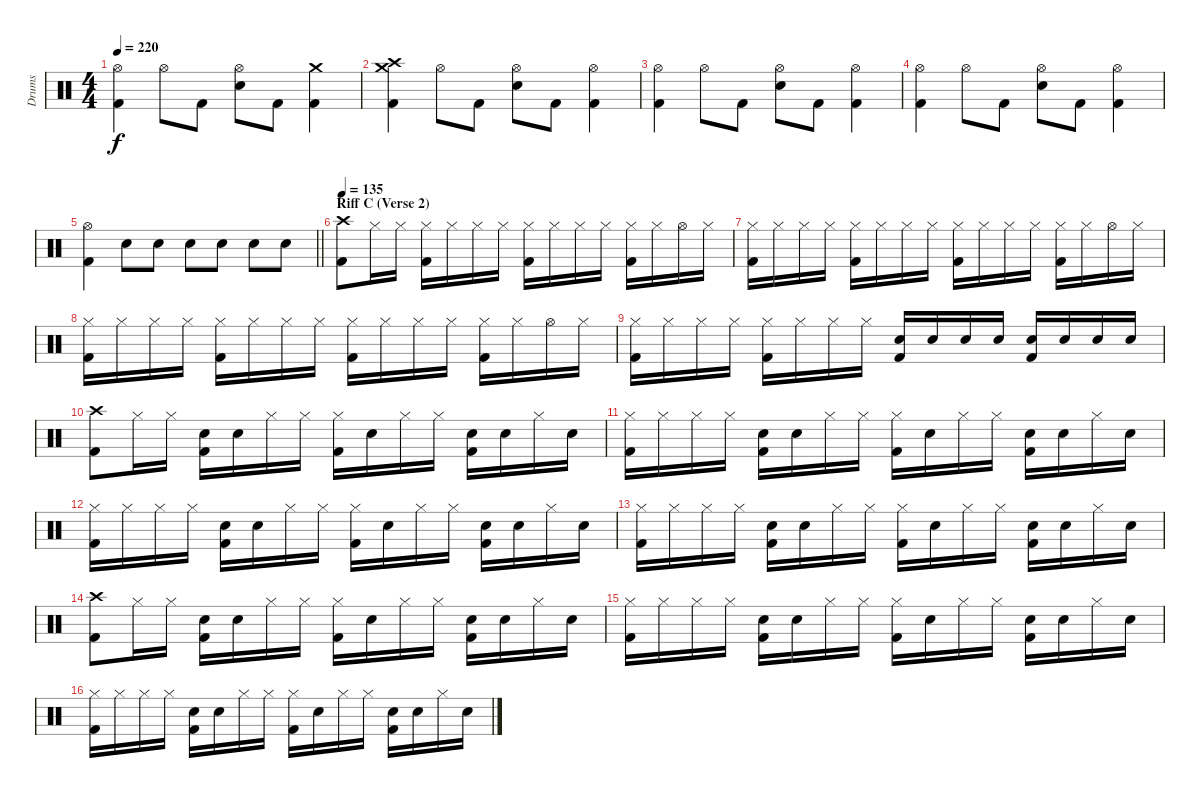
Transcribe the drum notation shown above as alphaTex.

\track ("Drums" "Drums") {instrument percussion}
\staff {score}
\articulation defaults
\ts (4 4)
\tempo 220
\clef neutral
\ks c
("Hi-Hat (open)" "Kick (hit) 2").4{dy f} "Hi-Hat (open)".8 "Kick (hit) 2".8 ("Hi-Hat (open)" "Snare (hit) 2").8 "Kick (hit) 2".8 ("Crash medium (hit)" "Kick (hit) 2").4 |
("Crash high (hit)" "Crash medium (hit)" "Kick (hit) 2").4 "Hi-Hat (open)".8 "Kick (hit) 2".8 ("Hi-Hat (open)" "Snare (hit) 2").8 "Kick (hit) 2".8 ("Hi-Hat (open)" "Kick (hit) 2").4 |
("Hi-Hat (open)" "Kick (hit) 2").4 "Hi-Hat (open)".8 "Kick (hit) 2".8 ("Hi-Hat (open)" "Snare (hit) 2").8 "Kick (hit) 2".8 ("Hi-Hat (open)" "Kick (hit) 2").4 |
("Hi-Hat (open)" "Kick (hit) 2").4 "Hi-Hat (open)".8 "Kick (hit) 2".8 ("Hi-Hat (open)" "Snare (hit) 2").8 "Kick (hit) 2".8 ("Hi-Hat (open)" "Kick (hit) 2").4 |
\barLineRight lightlight
("Hi-Hat (open)" "Kick (hit) 2").4 "Snare (hit) 2".8 "Snare (hit) 2".8 "Snare (hit) 2".8 "Snare (hit) 2".8 "Snare (hit) 2".8 "Snare (hit) 2".8 |
\section ("" "Riff C (Verse 2)")
\tempo 135
("Crash high (hit)" "Kick (hit) 2").8 "Hi-Hat (closed)".16 "Hi-Hat (closed)".16 ("Hi-Hat (closed)" "Kick (hit) 2").16 "Hi-Hat (closed)".16 "Hi-Hat (closed)".16 "Hi-Hat (closed)".16 ("Hi-Hat (closed)" "Kick (hit) 2").16 "Hi-Hat (closed)".16 "Hi-Hat (closed)".16 "Hi-Hat (closed)".16 ("Hi-Hat (closed)" "Kick (hit) 2").16 "Hi-Hat (closed)".16 "Hi-Hat (open)".16 "Hi-Hat (closed)".16 |
("Hi-Hat (closed)" "Kick (hit) 2").16 "Hi-Hat (closed)".16 "Hi-Hat (closed)".16 "Hi-Hat (closed)".16 ("Hi-Hat (closed)" "Kick (hit) 2").16 "Hi-Hat (closed)".16 "Hi-Hat (closed)".16 "Hi-Hat (closed)".16 ("Hi-Hat (closed)" "Kick (hit) 2").16 "Hi-Hat (closed)".16 "Hi-Hat (closed)".16 "Hi-Hat (closed)".16 ("Hi-Hat (closed)" "Kick (hit) 2").16 "Hi-Hat (closed)".16 "Hi-Hat (open)".16 "Hi-Hat (closed)".16 |
("Hi-Hat (closed)" "Kick (hit) 2").16 "Hi-Hat (closed)".16 "Hi-Hat (closed)".16 "Hi-Hat (closed)".16 ("Hi-Hat (closed)" "Kick (hit) 2").16 "Hi-Hat (closed)".16 "Hi-Hat (closed)".16 "Hi-Hat (closed)".16 ("Hi-Hat (closed)" "Kick (hit) 2").16 "Hi-Hat (closed)".16 "Hi-Hat (closed)".16 "Hi-Hat (closed)".16 ("Hi-Hat (closed)" "Kick (hit) 2").16 "Hi-Hat (closed)".16 "Hi-Hat (open)".16 "Hi-Hat (closed)".16 |
("Hi-Hat (closed)" "Kick (hit) 2").16 "Hi-Hat (closed)".16 "Hi-Hat (closed)".16 "Hi-Hat (closed)".16 ("Hi-Hat (closed)" "Kick (hit) 2").16 "Hi-Hat (closed)".16 "Hi-Hat (closed)".16 "Hi-Hat (closed)".16 ("Snare (hit) 2" "Kick (hit) 2").16 "Snare (hit) 2".16 "Snare (hit) 2".16 "Snare (hit) 2".16 ("Snare (hit) 2" "Kick (hit) 2").16 "Snare (hit) 2".16 "Snare (hit) 2".16 "Snare (hit) 2".16 |
("Crash high (hit)" "Kick (hit) 2").8 "Hi-Hat (closed)".16 "Hi-Hat (closed)".16 ("Snare (hit) 2" "Kick (hit) 2").16 "Snare (hit) 2".16 "Hi-Hat (closed)".16 "Hi-Hat (closed)".16 ("Hi-Hat (closed)" "Kick (hit) 2").16 "Snare (hit) 2".16 "Hi-Hat (closed)".16 "Hi-Hat (closed)".16 ("Snare (hit) 2" "Kick (hit) 2").16 "Snare (hit) 2".16 "Hi-Hat (closed)".16 "Snare (hit) 2".16 |
("Hi-Hat (closed)" "Kick (hit) 2").16 "Hi-Hat (closed)".16 "Hi-Hat (closed)".16 "Hi-Hat (closed)".16 ("Snare (hit) 2" "Kick (hit) 2").16 "Snare (hit) 2".16 "Hi-Hat (closed)".16 "Hi-Hat (closed)".16 ("Hi-Hat (closed)" "Kick (hit) 2").16 "Snare (hit) 2".16 "Hi-Hat (closed)".16 "Hi-Hat (closed)".16 ("Snare (hit) 2" "Kick (hit) 2").16 "Snare (hit) 2".16 "Hi-Hat (closed)".16 "Snare (hit) 2".16 |
("Hi-Hat (closed)" "Kick (hit) 2").16 "Hi-Hat (closed)".16 "Hi-Hat (closed)".16 "Hi-Hat (closed)".16 ("Snare (hit) 2" "Kick (hit) 2").16 "Snare (hit) 2".16 "Hi-Hat (closed)".16 "Hi-Hat (closed)".16 ("Hi-Hat (closed)" "Kick (hit) 2").16 "Snare (hit) 2".16 "Hi-Hat (closed)".16 "Hi-Hat (closed)".16 ("Snare (hit) 2" "Kick (hit) 2").16 "Snare (hit) 2".16 "Hi-Hat (closed)".16 "Snare (hit) 2".16 |
("Hi-Hat (closed)" "Kick (hit) 2").16 "Hi-Hat (closed)".16 "Hi-Hat (closed)".16 "Hi-Hat (closed)".16 ("Snare (hit) 2" "Kick (hit) 2").16 "Snare (hit) 2".16 "Hi-Hat (closed)".16 "Hi-Hat (closed)".16 ("Hi-Hat (closed)" "Kick (hit) 2").16 "Snare (hit) 2".16 "Hi-Hat (closed)".16 "Hi-Hat (closed)".16 ("Snare (hit) 2" "Kick (hit) 2").16 "Snare (hit) 2".16 "Hi-Hat (closed)".16 "Snare (hit) 2".16 |
("Crash high (hit)" "Kick (hit) 2").8 "Hi-Hat (closed)".16 "Hi-Hat (closed)".16 ("Snare (hit) 2" "Kick (hit) 2").16 "Snare (hit) 2".16 "Hi-Hat (closed)".16 "Hi-Hat (closed)".16 ("Hi-Hat (closed)" "Kick (hit) 2").16 "Snare (hit) 2".16 "Hi-Hat (closed)".16 "Hi-Hat (closed)".16 ("Snare (hit) 2" "Kick (hit) 2").16 "Snare (hit) 2".16 "Hi-Hat (closed)".16 "Snare (hit) 2".16 |
("Hi-Hat (closed)" "Kick (hit) 2").16 "Hi-Hat (closed)".16 "Hi-Hat (closed)".16 "Hi-Hat (closed)".16 ("Snare (hit) 2" "Kick (hit) 2").16 "Snare (hit) 2".16 "Hi-Hat (closed)".16 "Hi-Hat (closed)".16 ("Hi-Hat (closed)" "Kick (hit) 2").16 "Snare (hit) 2".16 "Hi-Hat (closed)".16 "Hi-Hat (closed)".16 ("Snare (hit) 2" "Kick (hit) 2").16 "Snare (hit) 2".16 "Hi-Hat (closed)".16 "Snare (hit) 2".16 |
("Hi-Hat (closed)" "Kick (hit) 2").16 "Hi-Hat (closed)".16 "Hi-Hat (closed)".16 "Hi-Hat (closed)".16 ("Snare (hit) 2" "Kick (hit) 2").16 "Snare (hit) 2".16 "Hi-Hat (closed)".16 "Hi-Hat (closed)".16 ("Hi-Hat (closed)" "Kick (hit) 2").16 "Snare (hit) 2".16 "Hi-Hat (closed)".16 "Hi-Hat (closed)".16 ("Snare (hit) 2" "Kick (hit) 2").16 "Snare (hit) 2".16 "Hi-Hat (closed)".16 "Snare (hit) 2".16
